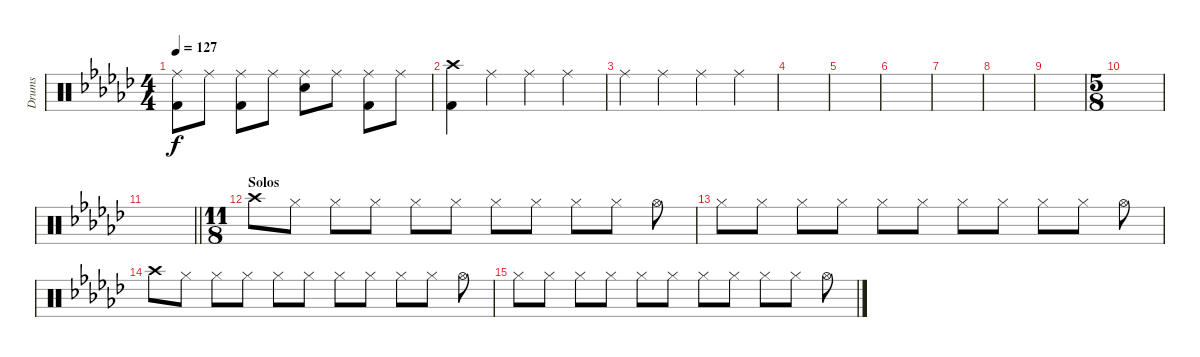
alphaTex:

\track ("Drums" "Drums") {instrument percussion}
\staff {score}
\articulation defaults
\ts (4 4)
\tempo 127
\clef neutral
\ks ebminor
("Ride (middle)" "Kick (hit) 2").8{dy f} "Ride (middle)".8 ("Ride (middle)" "Kick (hit) 2").8 "Ride (middle)".8 ("Ride (middle)" "Electric Snare (hit)").8 "Ride (middle)".8 ("Ride (middle)" "Kick (hit) 2").8 "Ride (middle)".8 |
("Crash high (hit)" "Kick (hit) 2").4 "Ride (middle)".4 "Ride (middle)".4 "Ride (middle)".4 |
"Ride (middle)".4 "Ride (middle)".4 "Ride (middle)".4 "Ride (middle)".4 |
|
|
|
|
|
|
\ts (5 8)
|
\barLineRight lightlight
|
\ts (11 8)
\section ("" "Solos")
"Crash high (hit)".8 "Hi-Hat (closed)".8 "Hi-Hat (closed)".8 "Hi-Hat (closed)".8 "Hi-Hat (closed)".8 "Hi-Hat (closed)".8 "Hi-Hat (closed)".8 "Hi-Hat (closed)".8 "Hi-Hat (closed)".8 "Hi-Hat (closed)".8 "Hi-Hat (open)".8 |
"Hi-Hat (closed)".8 "Hi-Hat (closed)".8 "Hi-Hat (closed)".8 "Hi-Hat (closed)".8 "Hi-Hat (closed)".8 "Hi-Hat (closed)".8 "Hi-Hat (closed)".8 "Hi-Hat (closed)".8 "Hi-Hat (closed)".8 "Hi-Hat (closed)".8 "Hi-Hat (open)".8 |
"Crash high (hit)".8 "Hi-Hat (closed)".8 "Hi-Hat (closed)".8 "Hi-Hat (closed)".8 "Hi-Hat (closed)".8 "Hi-Hat (closed)".8 "Hi-Hat (closed)".8 "Hi-Hat (closed)".8 "Hi-Hat (closed)".8 "Hi-Hat (closed)".8 "Hi-Hat (open)".8 |
"Hi-Hat (closed)".8 "Hi-Hat (closed)".8 "Hi-Hat (closed)".8 "Hi-Hat (closed)".8 "Hi-Hat (closed)".8 "Hi-Hat (closed)".8 "Hi-Hat (closed)".8 "Hi-Hat (closed)".8 "Hi-Hat (closed)".8 "Hi-Hat (closed)".8 "Hi-Hat (open)".8
